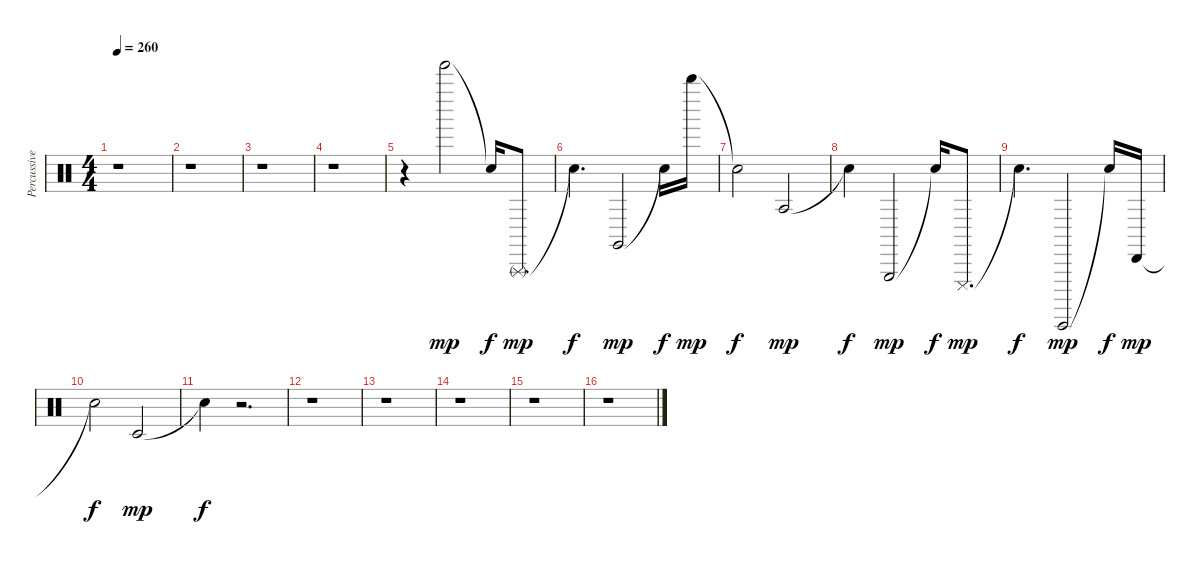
\track ("Percussive Organ" "Percussive") {instrument percussion}
\staff {score}
\articulation defaults
\ts (4 4)
\tempo 260
\clef neutral
\ks c
r.1{dy mf} |
r.1 |
r.1 |
r.1 |
r.4 "Tinkle Bell (hit)".2{dy mp} "Snare (hit)"{t}.16{dy f} "Triangle (rnute)".8{d dy mp} |
"Snare (hit)"{t}.4{d dy f} "Claves (hit)".2{dy mp} "Snare (hit)"{t}.16{dy f} "Whistle high (hit)".16{dy mp} |
"Snare (hit)"{t}.2{dy f} "Agogo tow (hit)".2{dy mp} |
"Snare (hit)"{t}.4{dy f} "Triangle (hit)".2{dy mp} "Snare (hit)"{t}.16{dy f} "Cuica (mute)".8{d dy mp} |
"Snare (hit)"{t}.4{d dy f} "Guiro (hit)".2{dy mp} "Snare (hit)"{t}.16{dy f} "Cabasa (hit)".16{dy mp} |
"Snare (hit)"{t}.2{dy f} "Timbale low (hit)".2{dy mp} |
"Snare (hit)"{t}.4{dy f} r.2{d} |
r.1 |
r.1 |
r.1 |
r.1 |
r.1
